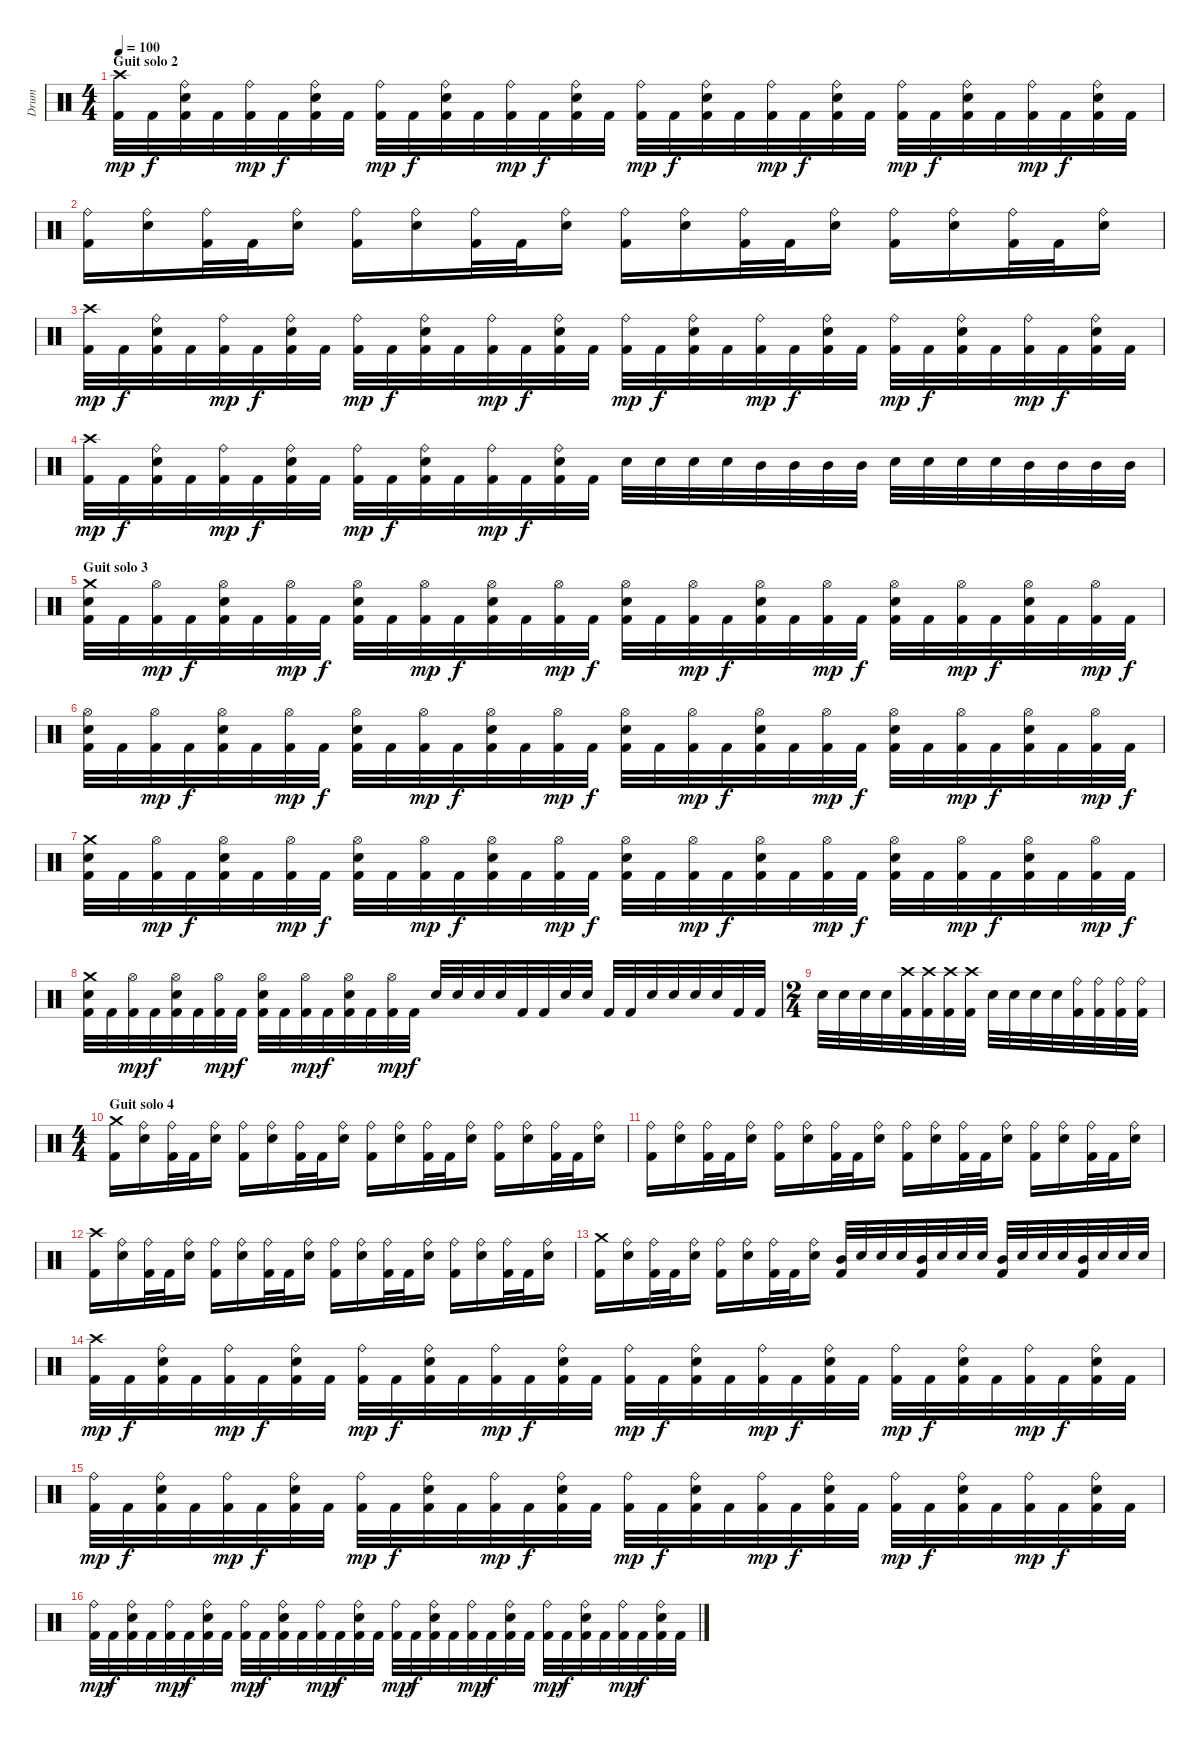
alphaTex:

\track ("Drum" "Drum") {instrument percussion}
\staff {score}
\articulation defaults
\ts (4 4)
\section ("" "Guit solo 2")
\tempo 100
\clef neutral
\ks c
("Crash high (hit)" "Kick (hit) 2").32{dy mp} "Kick (hit) 2".32{dy f} ("Ride (bell)" "Snare (hit) 2" "Kick (hit) 2").32 "Kick (hit) 2".32 ("Ride (bell)" "Kick (hit) 2").32{dy mp} "Kick (hit) 2".32{dy f} ("Ride (bell)" "Snare (hit) 2" "Kick (hit) 2").32 "Kick (hit) 2".32 ("Ride (bell)" "Kick (hit) 2").32{dy mp} "Kick (hit) 2".32{dy f} ("Ride (bell)" "Snare (hit) 2" "Kick (hit) 2").32 "Kick (hit) 2".32 ("Ride (bell)" "Kick (hit) 2").32{dy mp} "Kick (hit) 2".32{dy f} ("Ride (bell)" "Snare (hit) 2" "Kick (hit) 2").32 "Kick (hit) 2".32 ("Ride (bell)" "Kick (hit) 2").32{dy mp} "Kick (hit) 2".32{dy f} ("Ride (bell)" "Snare (hit) 2" "Kick (hit) 2").32 "Kick (hit) 2".32 ("Ride (bell)" "Kick (hit) 2").32{dy mp} "Kick (hit) 2".32{dy f} ("Ride (bell)" "Snare (hit) 2" "Kick (hit) 2").32 "Kick (hit) 2".32 ("Ride (bell)" "Kick (hit) 2").32{dy mp} "Kick (hit) 2".32{dy f} ("Ride (bell)" "Snare (hit) 2" "Kick (hit) 2").32 "Kick (hit) 2".32 ("Ride (bell)" "Kick (hit) 2").32{dy mp} "Kick (hit) 2".32{dy f} ("Ride (bell)" "Snare (hit) 2" "Kick (hit) 2").32 "Kick (hit) 2".32 |
("Ride (bell)" "Kick (hit) 2").16 ("Ride (bell)" "Snare (hit) 2").16 ("Ride (bell)" "Kick (hit) 2").32 "Kick (hit) 2".32 ("Ride (bell)" "Snare (hit) 2").16 ("Ride (bell)" "Kick (hit) 2").16 ("Ride (bell)" "Snare (hit) 2").16 ("Ride (bell)" "Kick (hit) 2").32 "Kick (hit) 2".32 ("Ride (bell)" "Snare (hit) 2").16 ("Ride (bell)" "Kick (hit) 2").16 ("Ride (bell)" "Snare (hit) 2").16 ("Ride (bell)" "Kick (hit) 2").32 "Kick (hit) 2".32 ("Ride (bell)" "Snare (hit) 2").16 ("Ride (bell)" "Kick (hit) 2").16 ("Ride (bell)" "Snare (hit) 2").16 ("Ride (bell)" "Kick (hit) 2").32 "Kick (hit) 2".32 ("Ride (bell)" "Snare (hit) 2").16 |
("Crash high (hit)" "Kick (hit) 2").32{dy mp} "Kick (hit) 2".32{dy f} ("Ride (bell)" "Snare (hit) 2" "Kick (hit) 2").32 "Kick (hit) 2".32 ("Ride (bell)" "Kick (hit) 2").32{dy mp} "Kick (hit) 2".32{dy f} ("Ride (bell)" "Snare (hit) 2" "Kick (hit) 2").32 "Kick (hit) 2".32 ("Ride (bell)" "Kick (hit) 2").32{dy mp} "Kick (hit) 2".32{dy f} ("Ride (bell)" "Snare (hit) 2" "Kick (hit) 2").32 "Kick (hit) 2".32 ("Ride (bell)" "Kick (hit) 2").32{dy mp} "Kick (hit) 2".32{dy f} ("Ride (bell)" "Snare (hit) 2" "Kick (hit) 2").32 "Kick (hit) 2".32 ("Ride (bell)" "Kick (hit) 2").32{dy mp} "Kick (hit) 2".32{dy f} ("Ride (bell)" "Snare (hit) 2" "Kick (hit) 2").32 "Kick (hit) 2".32 ("Ride (bell)" "Kick (hit) 2").32{dy mp} "Kick (hit) 2".32{dy f} ("Ride (bell)" "Snare (hit) 2" "Kick (hit) 2").32 "Kick (hit) 2".32 ("Ride (bell)" "Kick (hit) 2").32{dy mp} "Kick (hit) 2".32{dy f} ("Ride (bell)" "Snare (hit) 2" "Kick (hit) 2").32 "Kick (hit) 2".32 ("Ride (bell)" "Kick (hit) 2").32{dy mp} "Kick (hit) 2".32{dy f} ("Ride (bell)" "Snare (hit) 2" "Kick (hit) 2").32 "Kick (hit) 2".32 |
("Crash high (hit)" "Kick (hit) 2").32{dy mp} "Kick (hit) 2".32{dy f} ("Ride (bell)" "Snare (hit) 2" "Kick (hit) 2").32 "Kick (hit) 2".32 ("Ride (bell)" "Kick (hit) 2").32{dy mp} "Kick (hit) 2".32{dy f} ("Ride (bell)" "Snare (hit) 2" "Kick (hit) 2").32 "Kick (hit) 2".32 ("Ride (bell)" "Kick (hit) 2").32{dy mp} "Kick (hit) 2".32{dy f} ("Ride (bell)" "Snare (hit) 2" "Kick (hit) 2").32 "Kick (hit) 2".32 ("Ride (bell)" "Kick (hit) 2").32{dy mp} "Kick (hit) 2".32{dy f} ("Ride (bell)" "Snare (hit) 2" "Kick (hit) 2").32 "Kick (hit) 2".32 "Snare (hit) 2".32 "Snare (hit) 2".32 "Snare (hit) 2".32 "Snare (hit) 2".32 "Mid Tom (hit)".32 "Mid Tom (hit)".32 "Mid Tom (hit)".32 "Mid Tom (hit)".32 "Snare (hit) 2".32 "Snare (hit) 2".32 "Snare (hit) 2".32 "Snare (hit) 2".32 "Mid Tom (hit)".32 "Mid Tom (hit)".32 "Mid Tom (hit)".32 "Mid Tom (hit)".32 |
\section ("" "Guit solo 3")
("Crash medium (hit)" "Snare (hit) 2" "Kick (hit) 2").32 "Kick (hit) 2".32 ("Hi-Hat (open)" "Kick (hit) 2").32{dy mp} "Kick (hit) 2".32{dy f} ("Hi-Hat (open)" "Snare (hit) 2" "Kick (hit) 2").32 "Kick (hit) 2".32 ("Hi-Hat (open)" "Kick (hit) 2").32{dy mp} "Kick (hit) 2".32{dy f} ("Hi-Hat (open)" "Snare (hit) 2" "Kick (hit) 2").32 "Kick (hit) 2".32 ("Hi-Hat (open)" "Kick (hit) 2").32{dy mp} "Kick (hit) 2".32{dy f} ("Hi-Hat (open)" "Snare (hit) 2" "Kick (hit) 2").32 "Kick (hit) 2".32 ("Hi-Hat (open)" "Kick (hit) 2").32{dy mp} "Kick (hit) 2".32{dy f} ("Hi-Hat (open)" "Snare (hit) 2" "Kick (hit) 2").32 "Kick (hit) 2".32 ("Hi-Hat (open)" "Kick (hit) 2").32{dy mp} "Kick (hit) 2".32{dy f} ("Hi-Hat (open)" "Snare (hit) 2" "Kick (hit) 2").32 "Kick (hit) 2".32 ("Hi-Hat (open)" "Kick (hit) 2").32{dy mp} "Kick (hit) 2".32{dy f} ("Hi-Hat (open)" "Snare (hit) 2" "Kick (hit) 2").32 "Kick (hit) 2".32 ("Hi-Hat (open)" "Kick (hit) 2").32{dy mp} "Kick (hit) 2".32{dy f} ("Hi-Hat (open)" "Snare (hit) 2" "Kick (hit) 2").32 "Kick (hit) 2".32 ("Hi-Hat (open)" "Kick (hit) 2").32{dy mp} "Kick (hit) 2".32{dy f} |
("Hi-Hat (open)" "Snare (hit) 2" "Kick (hit) 2").32 "Kick (hit) 2".32 ("Hi-Hat (open)" "Kick (hit) 2").32{dy mp} "Kick (hit) 2".32{dy f} ("Hi-Hat (open)" "Snare (hit) 2" "Kick (hit) 2").32 "Kick (hit) 2".32 ("Hi-Hat (open)" "Kick (hit) 2").32{dy mp} "Kick (hit) 2".32{dy f} ("Hi-Hat (open)" "Snare (hit) 2" "Kick (hit) 2").32 "Kick (hit) 2".32 ("Hi-Hat (open)" "Kick (hit) 2").32{dy mp} "Kick (hit) 2".32{dy f} ("Hi-Hat (open)" "Snare (hit) 2" "Kick (hit) 2").32 "Kick (hit) 2".32 ("Hi-Hat (open)" "Kick (hit) 2").32{dy mp} "Kick (hit) 2".32{dy f} ("Hi-Hat (open)" "Snare (hit) 2" "Kick (hit) 2").32 "Kick (hit) 2".32 ("Hi-Hat (open)" "Kick (hit) 2").32{dy mp} "Kick (hit) 2".32{dy f} ("Hi-Hat (open)" "Snare (hit) 2" "Kick (hit) 2").32 "Kick (hit) 2".32 ("Hi-Hat (open)" "Kick (hit) 2").32{dy mp} "Kick (hit) 2".32{dy f} ("Hi-Hat (open)" "Snare (hit) 2" "Kick (hit) 2").32 "Kick (hit) 2".32 ("Hi-Hat (open)" "Kick (hit) 2").32{dy mp} "Kick (hit) 2".32{dy f} ("Hi-Hat (open)" "Snare (hit) 2" "Kick (hit) 2").32 "Kick (hit) 2".32 ("Hi-Hat (open)" "Kick (hit) 2").32{dy mp} "Kick (hit) 2".32{dy f} |
("Crash medium (hit)" "Snare (hit) 2" "Kick (hit) 2").32 "Kick (hit) 2".32 ("Hi-Hat (open)" "Kick (hit) 2").32{dy mp} "Kick (hit) 2".32{dy f} ("Hi-Hat (open)" "Snare (hit) 2" "Kick (hit) 2").32 "Kick (hit) 2".32 ("Hi-Hat (open)" "Kick (hit) 2").32{dy mp} "Kick (hit) 2".32{dy f} ("Hi-Hat (open)" "Snare (hit) 2" "Kick (hit) 2").32 "Kick (hit) 2".32 ("Hi-Hat (open)" "Kick (hit) 2").32{dy mp} "Kick (hit) 2".32{dy f} ("Hi-Hat (open)" "Snare (hit) 2" "Kick (hit) 2").32 "Kick (hit) 2".32 ("Hi-Hat (open)" "Kick (hit) 2").32{dy mp} "Kick (hit) 2".32{dy f} ("Hi-Hat (open)" "Snare (hit) 2" "Kick (hit) 2").32 "Kick (hit) 2".32 ("Hi-Hat (open)" "Kick (hit) 2").32{dy mp} "Kick (hit) 2".32{dy f} ("Hi-Hat (open)" "Snare (hit) 2" "Kick (hit) 2").32 "Kick (hit) 2".32 ("Hi-Hat (open)" "Kick (hit) 2").32{dy mp} "Kick (hit) 2".32{dy f} ("Hi-Hat (open)" "Snare (hit) 2" "Kick (hit) 2").32 "Kick (hit) 2".32 ("Hi-Hat (open)" "Kick (hit) 2").32{dy mp} "Kick (hit) 2".32{dy f} ("Hi-Hat (open)" "Snare (hit) 2" "Kick (hit) 2").32 "Kick (hit) 2".32 ("Hi-Hat (open)" "Kick (hit) 2").32{dy mp} "Kick (hit) 2".32{dy f} |
("Crash medium (hit)" "Snare (hit) 2" "Kick (hit) 2").32 "Kick (hit) 2".32 ("Hi-Hat (open)" "Kick (hit) 2").32{dy mp} "Kick (hit) 2".32{dy f} ("Hi-Hat (open)" "Snare (hit) 2" "Kick (hit) 2").32 "Kick (hit) 2".32 ("Hi-Hat (open)" "Kick (hit) 2").32{dy mp} "Kick (hit) 2".32{dy f} ("Hi-Hat (open)" "Snare (hit) 2" "Kick (hit) 2").32 "Kick (hit) 2".32 ("Hi-Hat (open)" "Kick (hit) 2").32{dy mp} "Kick (hit) 2".32{dy f} ("Hi-Hat (open)" "Snare (hit) 2" "Kick (hit) 2").32 "Kick (hit) 2".32 ("Hi-Hat (open)" "Kick (hit) 2").32{dy mp} "Kick (hit) 2".32{dy f} "Snare (hit) 2".32 "Snare (hit) 2".32 "Snare (hit) 2".32 "Snare (hit) 2".32 "Kick (hit) 2".32 "Kick (hit) 2".32 "Snare (hit) 2".32 "Snare (hit) 2".32 "Kick (hit) 2".32 "Kick (hit) 2".32 "Snare (hit) 2".32 "Snare (hit) 2".32 "Snare (hit) 2".32 "Snare (hit) 2".32 "Kick (hit) 2".32 "Kick (hit) 2".32 |
\ts (2 4)
"Snare (hit) 2".32 "Snare (hit) 2".32 "Snare (hit) 2".32 "Snare (hit) 2".32 ("Crash high (hit)" "Kick (hit) 2").32 ("Crash high (hit)" "Kick (hit) 2").32 ("Crash high (hit)" "Kick (hit) 2").32 ("Crash high (hit)" "Kick (hit) 2").32 "Snare (hit) 2".32 "Snare (hit) 2".32 "Snare (hit) 2".32 "Snare (hit) 2".32 ("Ride (bell)" "Kick (hit) 2").32 ("Ride (bell)" "Kick (hit) 2").32 ("Ride (bell)" "Kick (hit) 2").32 ("Ride (bell)" "Kick (hit) 2").32 |
\ts (4 4)
\section ("" "Guit solo 4")
("Crash medium (hit)" "Kick (hit) 2").16 ("Ride (bell)" "Snare (hit) 2").16 ("Ride (bell)" "Kick (hit) 2").32 "Kick (hit) 2".32 ("Ride (bell)" "Snare (hit) 2").16 ("Ride (bell)" "Kick (hit) 2").16 ("Ride (bell)" "Snare (hit) 2").16 ("Ride (bell)" "Kick (hit) 2").32 "Kick (hit) 2".32 ("Ride (bell)" "Snare (hit) 2").16 ("Ride (bell)" "Kick (hit) 2").16 ("Ride (bell)" "Snare (hit) 2").16 ("Ride (bell)" "Kick (hit) 2").32 "Kick (hit) 2".32 ("Ride (bell)" "Snare (hit) 2").16 ("Ride (bell)" "Kick (hit) 2").16 ("Ride (bell)" "Snare (hit) 2").16 ("Ride (bell)" "Kick (hit) 2").32 "Kick (hit) 2".32 ("Ride (bell)" "Snare (hit) 2").16 |
("Ride (bell)" "Kick (hit) 2").16 ("Ride (bell)" "Snare (hit) 2").16 ("Ride (bell)" "Kick (hit) 2").32 "Kick (hit) 2".32 ("Ride (bell)" "Snare (hit) 2").16 ("Ride (bell)" "Kick (hit) 2").16 ("Ride (bell)" "Snare (hit) 2").16 ("Ride (bell)" "Kick (hit) 2").32 "Kick (hit) 2".32 ("Ride (bell)" "Snare (hit) 2").16 ("Ride (bell)" "Kick (hit) 2").16 ("Ride (bell)" "Snare (hit) 2").16 ("Ride (bell)" "Kick (hit) 2").32 "Kick (hit) 2".32 ("Ride (bell)" "Snare (hit) 2").16 ("Ride (bell)" "Kick (hit) 2").16 ("Ride (bell)" "Snare (hit) 2").16 ("Ride (bell)" "Kick (hit) 2").32 "Kick (hit) 2".32 ("Ride (bell)" "Snare (hit) 2").16 |
("Crash high (hit)" "Kick (hit) 2").16 ("Ride (bell)" "Snare (hit) 2").16 ("Ride (bell)" "Kick (hit) 2").32 "Kick (hit) 2".32 ("Ride (bell)" "Snare (hit) 2").16 ("Ride (bell)" "Kick (hit) 2").16 ("Ride (bell)" "Snare (hit) 2").16 ("Ride (bell)" "Kick (hit) 2").32 "Kick (hit) 2".32 ("Ride (bell)" "Snare (hit) 2").16 ("Ride (bell)" "Kick (hit) 2").16 ("Ride (bell)" "Snare (hit) 2").16 ("Ride (bell)" "Kick (hit) 2").32 "Kick (hit) 2".32 ("Ride (bell)" "Snare (hit) 2").16 ("Ride (bell)" "Kick (hit) 2").16 ("Ride (bell)" "Snare (hit) 2").16 ("Ride (bell)" "Kick (hit) 2").32 "Kick (hit) 2".32 ("Ride (bell)" "Snare (hit) 2").16 |
("Crash medium (hit)" "Kick (hit) 2").16 ("Ride (bell)" "Snare (hit) 2").16 ("Ride (bell)" "Kick (hit) 2").32 "Kick (hit) 2".32 ("Ride (bell)" "Snare (hit) 2").16 ("Ride (bell)" "Kick (hit) 2").16 ("Ride (bell)" "Snare (hit) 2").16 ("Ride (bell)" "Kick (hit) 2").32 "Kick (hit) 2".32 ("Ride (bell)" "Snare (hit) 2").16 ("Kick (hit) 2" "Mid Tom (hit)").32 "Snare (hit) 2".32 "Snare (hit) 2".32 "Snare (hit) 2".32 ("Kick (hit) 2" "Mid Tom (hit)").32 "Snare (hit) 2".32 "Snare (hit) 2".32 "Snare (hit) 2".32 ("Kick (hit) 2" "Mid Tom (hit)").32 "Snare (hit) 2".32 "Snare (hit) 2".32 "Snare (hit) 2".32 ("Kick (hit) 2" "Mid Tom (hit)").32 "Snare (hit) 2".32 "Snare (hit) 2".32 "Snare (hit) 2".32 |
("Crash high (hit)" "Kick (hit) 2").32{dy mp} "Kick (hit) 2".32{dy f} ("Ride (bell)" "Snare (hit) 2" "Kick (hit) 2").32 "Kick (hit) 2".32 ("Ride (bell)" "Kick (hit) 2").32{dy mp} "Kick (hit) 2".32{dy f} ("Ride (bell)" "Snare (hit) 2" "Kick (hit) 2").32 "Kick (hit) 2".32 ("Ride (bell)" "Kick (hit) 2").32{dy mp} "Kick (hit) 2".32{dy f} ("Ride (bell)" "Snare (hit) 2" "Kick (hit) 2").32 "Kick (hit) 2".32 ("Ride (bell)" "Kick (hit) 2").32{dy mp} "Kick (hit) 2".32{dy f} ("Ride (bell)" "Snare (hit) 2" "Kick (hit) 2").32 "Kick (hit) 2".32 ("Ride (bell)" "Kick (hit) 2").32{dy mp} "Kick (hit) 2".32{dy f} ("Ride (bell)" "Snare (hit) 2" "Kick (hit) 2").32 "Kick (hit) 2".32 ("Ride (bell)" "Kick (hit) 2").32{dy mp} "Kick (hit) 2".32{dy f} ("Ride (bell)" "Snare (hit) 2" "Kick (hit) 2").32 "Kick (hit) 2".32 ("Ride (bell)" "Kick (hit) 2").32{dy mp} "Kick (hit) 2".32{dy f} ("Ride (bell)" "Snare (hit) 2" "Kick (hit) 2").32 "Kick (hit) 2".32 ("Ride (bell)" "Kick (hit) 2").32{dy mp} "Kick (hit) 2".32{dy f} ("Ride (bell)" "Snare (hit) 2" "Kick (hit) 2").32 "Kick (hit) 2".32 |
("Ride (bell)" "Kick (hit) 2").32{dy mp} "Kick (hit) 2".32{dy f} ("Ride (bell)" "Snare (hit) 2" "Kick (hit) 2").32 "Kick (hit) 2".32 ("Ride (bell)" "Kick (hit) 2").32{dy mp} "Kick (hit) 2".32{dy f} ("Ride (bell)" "Snare (hit) 2" "Kick (hit) 2").32 "Kick (hit) 2".32 ("Ride (bell)" "Kick (hit) 2").32{dy mp} "Kick (hit) 2".32{dy f} ("Ride (bell)" "Snare (hit) 2" "Kick (hit) 2").32 "Kick (hit) 2".32 ("Ride (bell)" "Kick (hit) 2").32{dy mp} "Kick (hit) 2".32{dy f} ("Ride (bell)" "Snare (hit) 2" "Kick (hit) 2").32 "Kick (hit) 2".32 ("Ride (bell)" "Kick (hit) 2").32{dy mp} "Kick (hit) 2".32{dy f} ("Ride (bell)" "Snare (hit) 2" "Kick (hit) 2").32 "Kick (hit) 2".32 ("Ride (bell)" "Kick (hit) 2").32{dy mp} "Kick (hit) 2".32{dy f} ("Ride (bell)" "Snare (hit) 2" "Kick (hit) 2").32 "Kick (hit) 2".32 ("Ride (bell)" "Kick (hit) 2").32{dy mp} "Kick (hit) 2".32{dy f} ("Ride (bell)" "Snare (hit) 2" "Kick (hit) 2").32 "Kick (hit) 2".32 ("Ride (bell)" "Kick (hit) 2").32{dy mp} "Kick (hit) 2".32{dy f} ("Ride (bell)" "Snare (hit) 2" "Kick (hit) 2").32 "Kick (hit) 2".32 |
("Ride (bell)" "Kick (hit) 2").32{dy mp} "Kick (hit) 2".32{dy f} ("Ride (bell)" "Snare (hit) 2" "Kick (hit) 2").32 "Kick (hit) 2".32 ("Ride (bell)" "Kick (hit) 2").32{dy mp} "Kick (hit) 2".32{dy f} ("Ride (bell)" "Snare (hit) 2" "Kick (hit) 2").32 "Kick (hit) 2".32 ("Ride (bell)" "Kick (hit) 2").32{dy mp} "Kick (hit) 2".32{dy f} ("Ride (bell)" "Snare (hit) 2" "Kick (hit) 2").32 "Kick (hit) 2".32 ("Ride (bell)" "Kick (hit) 2").32{dy mp} "Kick (hit) 2".32{dy f} ("Ride (bell)" "Snare (hit) 2" "Kick (hit) 2").32 "Kick (hit) 2".32 ("Ride (bell)" "Kick (hit) 2").32{dy mp} "Kick (hit) 2".32{dy f} ("Ride (bell)" "Snare (hit) 2" "Kick (hit) 2").32 "Kick (hit) 2".32 ("Ride (bell)" "Kick (hit) 2").32{dy mp} "Kick (hit) 2".32{dy f} ("Ride (bell)" "Snare (hit) 2" "Kick (hit) 2").32 "Kick (hit) 2".32 ("Ride (bell)" "Kick (hit) 2").32{dy mp} "Kick (hit) 2".32{dy f} ("Ride (bell)" "Snare (hit) 2" "Kick (hit) 2").32 "Kick (hit) 2".32 ("Ride (bell)" "Kick (hit) 2").32{dy mp} "Kick (hit) 2".32{dy f} ("Ride (bell)" "Snare (hit) 2" "Kick (hit) 2").32 "Kick (hit) 2".32
